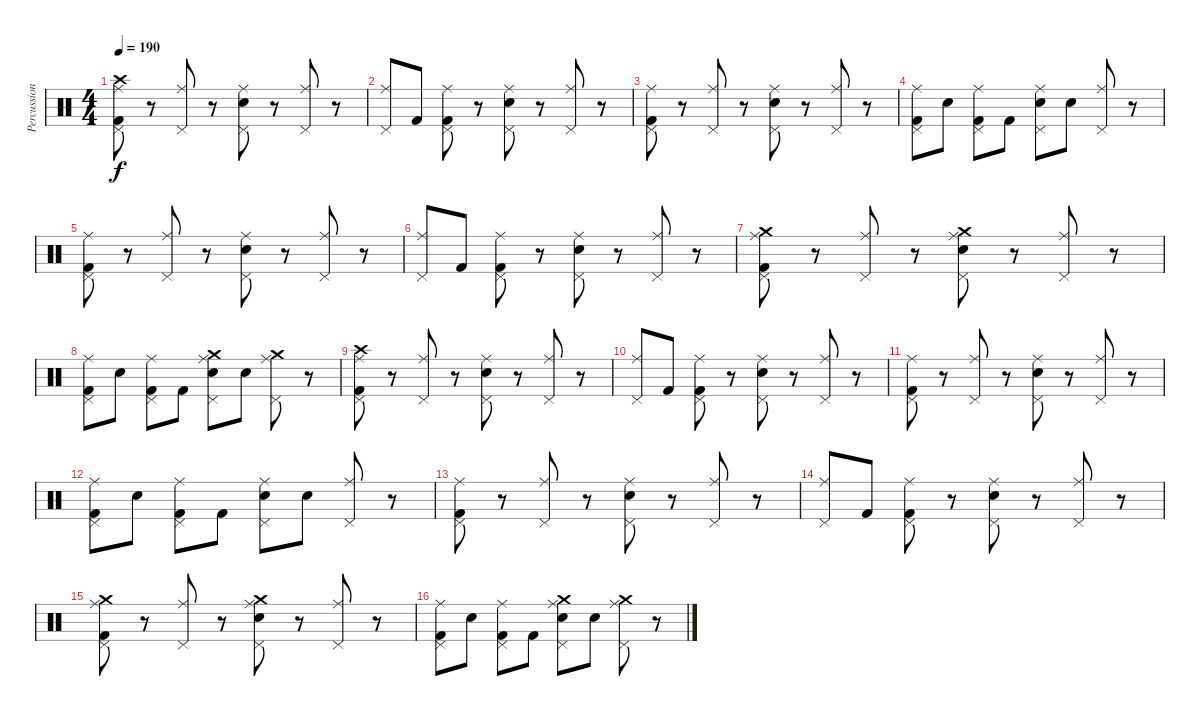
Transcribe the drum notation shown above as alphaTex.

\track ("Percussion" "Percussion") {instrument percussion}
\staff {score}
\articulation defaults
\ts (4 4)
\tempo 190
\clef neutral
\ks c
("Crash high (hit)" "Ride (middle)" "Pedal Hi-Hat (hit)" "Kick (hit) 2").8{dy f} r.8 ("Ride (middle)" "Pedal Hi-Hat (hit)").8 r.8 ("Ride (middle)" "Pedal Hi-Hat (hit)" "Snare (hit) 2").8 r.8 ("Ride (middle)" "Pedal Hi-Hat (hit)").8 r.8 |
("Ride (middle)" "Pedal Hi-Hat (hit)").8 "Kick (hit) 2".8 ("Ride (middle)" "Pedal Hi-Hat (hit)" "Kick (hit) 2").8 r.8 ("Ride (middle)" "Pedal Hi-Hat (hit)" "Snare (hit) 2").8 r.8 ("Ride (middle)" "Pedal Hi-Hat (hit)").8 r.8 |
("Ride (middle)" "Pedal Hi-Hat (hit)" "Kick (hit) 2").8 r.8 ("Ride (middle)" "Pedal Hi-Hat (hit)").8 r.8 ("Ride (middle)" "Pedal Hi-Hat (hit)" "Snare (hit) 2").8 r.8 ("Ride (middle)" "Pedal Hi-Hat (hit)").8 r.8 |
("Ride (middle)" "Pedal Hi-Hat (hit)" "Kick (hit) 2").8 "Snare (hit) 2".8 ("Ride (middle)" "Pedal Hi-Hat (hit)" "Kick (hit) 2").8 "Kick (hit) 2".8 ("Ride (middle)" "Pedal Hi-Hat (hit)" "Snare (hit) 2").8 "Snare (hit) 2".8 ("Ride (middle)" "Pedal Hi-Hat (hit)").8 r.8 |
("Ride (middle)" "Pedal Hi-Hat (hit)" "Kick (hit) 2").8 r.8 ("Ride (middle)" "Pedal Hi-Hat (hit)").8 r.8 ("Ride (middle)" "Pedal Hi-Hat (hit)" "Snare (hit) 2").8 r.8 ("Ride (middle)" "Pedal Hi-Hat (hit)").8 r.8 |
("Ride (middle)" "Pedal Hi-Hat (hit)").8 "Kick (hit) 2".8 ("Ride (middle)" "Pedal Hi-Hat (hit)" "Kick (hit) 2").8 r.8 ("Ride (middle)" "Pedal Hi-Hat (hit)" "Snare (hit) 2").8 r.8 ("Ride (middle)" "Pedal Hi-Hat (hit)").8 r.8 |
("Crash medium (hit)" "Ride (middle)" "Pedal Hi-Hat (hit)" "Kick (hit) 2").8 r.8 ("Ride (middle)" "Pedal Hi-Hat (hit)").8 r.8 ("Crash medium (hit)" "Ride (middle)" "Pedal Hi-Hat (hit)" "Snare (hit) 2").8 r.8 ("Ride (middle)" "Pedal Hi-Hat (hit)").8 r.8 |
("Ride (middle)" "Pedal Hi-Hat (hit)" "Kick (hit) 2").8 "Snare (hit) 2".8 ("Ride (middle)" "Pedal Hi-Hat (hit)" "Kick (hit) 2").8 "Kick (hit) 2".8 ("Crash medium (hit)" "Ride (middle)" "Pedal Hi-Hat (hit)" "Snare (hit) 2").8 "Snare (hit) 2".8 ("Crash medium (hit)" "Ride (middle)" "Pedal Hi-Hat (hit)").8 r.8 |
("Crash high (hit)" "Ride (middle)" "Pedal Hi-Hat (hit)" "Kick (hit) 2").8 r.8 ("Ride (middle)" "Pedal Hi-Hat (hit)").8 r.8 ("Ride (middle)" "Pedal Hi-Hat (hit)" "Snare (hit) 2").8 r.8 ("Ride (middle)" "Pedal Hi-Hat (hit)").8 r.8 |
("Ride (middle)" "Pedal Hi-Hat (hit)").8 "Kick (hit) 2".8 ("Ride (middle)" "Pedal Hi-Hat (hit)" "Kick (hit) 2").8 r.8 ("Ride (middle)" "Pedal Hi-Hat (hit)" "Snare (hit) 2").8 r.8 ("Ride (middle)" "Pedal Hi-Hat (hit)").8 r.8 |
("Ride (middle)" "Pedal Hi-Hat (hit)" "Kick (hit) 2").8 r.8 ("Ride (middle)" "Pedal Hi-Hat (hit)").8 r.8 ("Ride (middle)" "Pedal Hi-Hat (hit)" "Snare (hit) 2").8 r.8 ("Ride (middle)" "Pedal Hi-Hat (hit)").8 r.8 |
("Ride (middle)" "Pedal Hi-Hat (hit)" "Kick (hit) 2").8 "Snare (hit) 2".8 ("Ride (middle)" "Pedal Hi-Hat (hit)" "Kick (hit) 2").8 "Kick (hit) 2".8 ("Ride (middle)" "Pedal Hi-Hat (hit)" "Snare (hit) 2").8 "Snare (hit) 2".8 ("Ride (middle)" "Pedal Hi-Hat (hit)").8 r.8 |
("Ride (middle)" "Pedal Hi-Hat (hit)" "Kick (hit) 2").8 r.8 ("Ride (middle)" "Pedal Hi-Hat (hit)").8 r.8 ("Ride (middle)" "Pedal Hi-Hat (hit)" "Snare (hit) 2").8 r.8 ("Ride (middle)" "Pedal Hi-Hat (hit)").8 r.8 |
("Ride (middle)" "Pedal Hi-Hat (hit)").8 "Kick (hit) 2".8 ("Ride (middle)" "Pedal Hi-Hat (hit)" "Kick (hit) 2").8 r.8 ("Ride (middle)" "Pedal Hi-Hat (hit)" "Snare (hit) 2").8 r.8 ("Ride (middle)" "Pedal Hi-Hat (hit)").8 r.8 |
("Crash medium (hit)" "Ride (middle)" "Pedal Hi-Hat (hit)" "Kick (hit) 2").8 r.8 ("Ride (middle)" "Pedal Hi-Hat (hit)").8 r.8 ("Crash medium (hit)" "Ride (middle)" "Pedal Hi-Hat (hit)" "Snare (hit) 2").8 r.8 ("Ride (middle)" "Pedal Hi-Hat (hit)").8 r.8 |
("Ride (middle)" "Pedal Hi-Hat (hit)" "Kick (hit) 2").8 "Snare (hit) 2".8 ("Ride (middle)" "Pedal Hi-Hat (hit)" "Kick (hit) 2").8 "Kick (hit) 2".8 ("Crash medium (hit)" "Ride (middle)" "Pedal Hi-Hat (hit)" "Snare (hit) 2").8 "Snare (hit) 2".8 ("Crash medium (hit)" "Ride (middle)" "Pedal Hi-Hat (hit)").8 r.8
